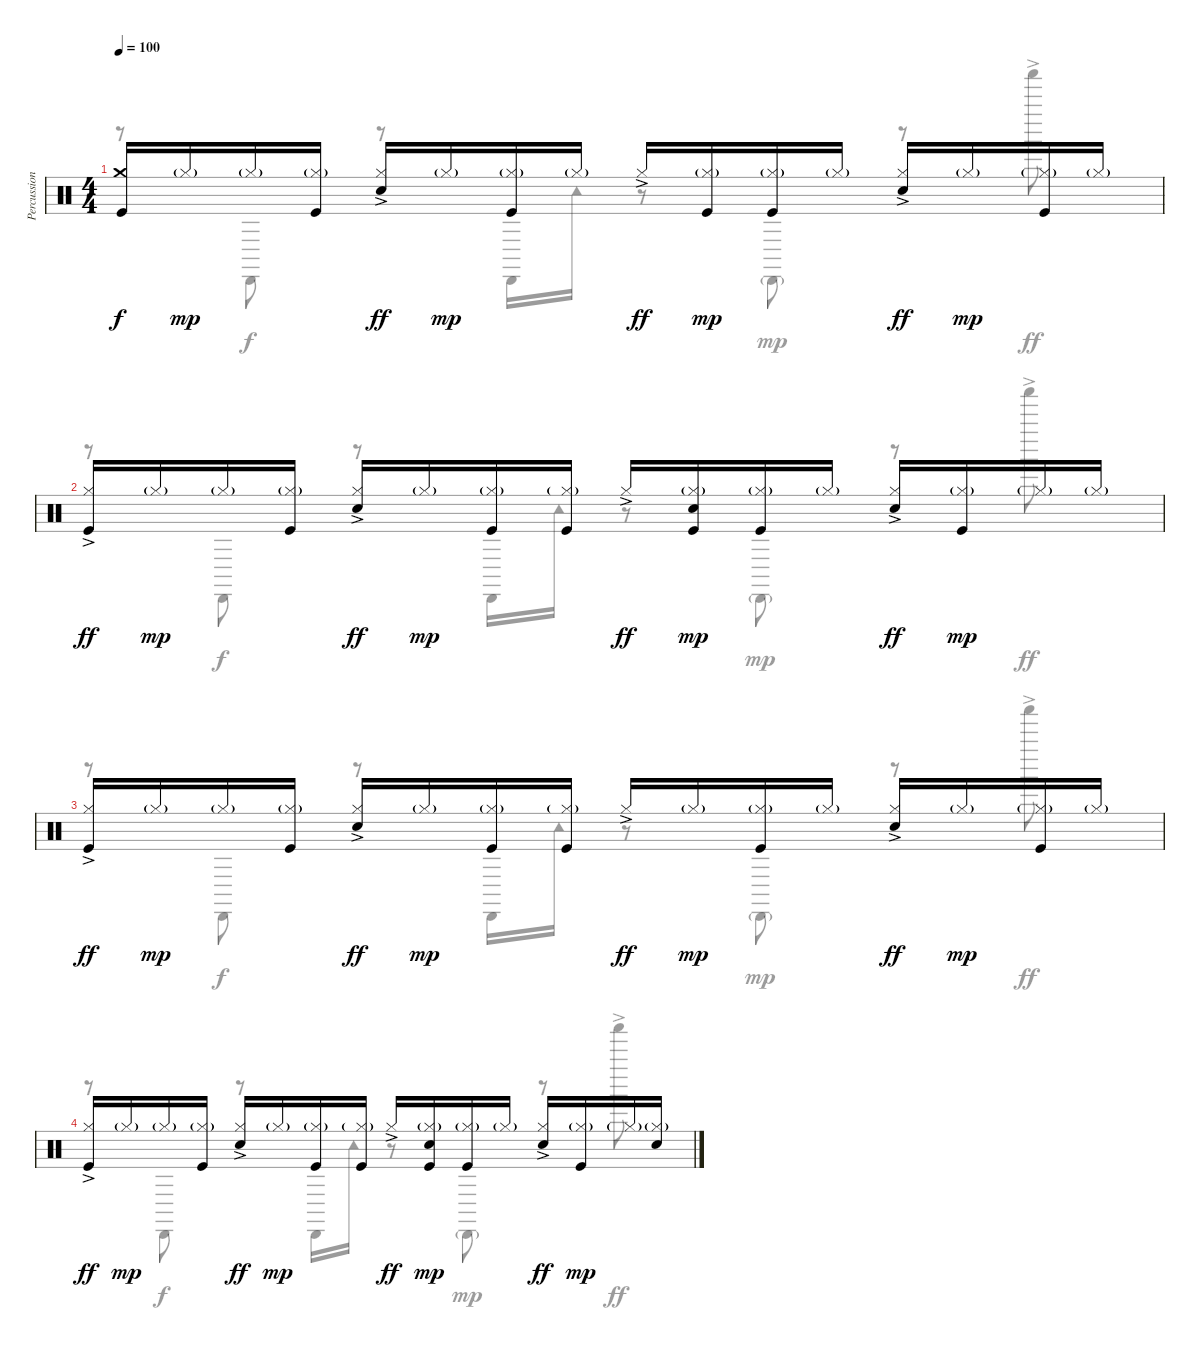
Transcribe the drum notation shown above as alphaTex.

\track ("Percussions" "Percussion") {instrument percussion}
\staff {score}
\articulation defaults
\voice
\ts (4 4)
\tempo 100
\clef neutral
\ks c
("Kick (hit)" "Crash medium (hit)").16{dy f} "Hi-Hat (closed)"{g}.16{dy mp} "Hi-Hat (closed)"{g}.16 ("Kick (hit)" "Hi-Hat (closed)"{g}).16 ("Electric Snare (hit)" "Hi-Hat (closed)"{ac}).16{dy ff} "Hi-Hat (closed)"{g}.16{dy mp} ("Kick (hit)" "Hi-Hat (closed)"{g}).16 "Hi-Hat (closed)"{g}.16 "Hi-Hat (closed)"{ac}.16{dy ff} ("Kick (hit)" "Hi-Hat (closed)"{g}).16{dy mp} ("Kick (hit)" "Hi-Hat (closed)"{g}).16 "Hi-Hat (closed)"{g}.16 ("Snare (hit) 2" "Hi-Hat (closed)"{ac}).16{dy ff} "Hi-Hat (closed)"{g}.16{dy mp} ("Kick (hit)" "Hi-Hat (closed)"{g}).16 "Hi-Hat (closed)"{g}.16 |
("Kick (hit)" "Hi-Hat (closed)"{ac}).16{dy ff} "Hi-Hat (closed)"{g}.16{dy mp} "Hi-Hat (closed)"{g}.16 ("Kick (hit)" "Hi-Hat (closed)"{g}).16 ("Electric Snare (hit)" "Hi-Hat (closed)"{ac}).16{dy ff} "Hi-Hat (closed)"{g}.16{dy mp} ("Kick (hit)" "Hi-Hat (closed)"{g}).16 ("Kick (hit)" "Hi-Hat (closed)"{g}).16 "Hi-Hat (closed)"{ac}.16{dy ff} ("Kick (hit)" "Electric Snare (hit)" "Hi-Hat (closed)"{g}).16{dy mp} ("Kick (hit)" "Hi-Hat (closed)"{g}).16 "Hi-Hat (closed)"{g}.16 ("Snare (hit) 2" "Hi-Hat (closed)"{ac}).16{dy ff} ("Kick (hit)" "Hi-Hat (closed)"{g}).16{dy mp} "Hi-Hat (closed)"{g}.16 "Hi-Hat (closed)"{g}.16 |
("Kick (hit)" "Hi-Hat (closed)"{ac}).16{dy ff} "Hi-Hat (closed)"{g}.16{dy mp} "Hi-Hat (closed)"{g}.16 ("Kick (hit)" "Hi-Hat (closed)"{g}).16 ("Electric Snare (hit)" "Hi-Hat (closed)"{ac}).16{dy ff} "Hi-Hat (closed)"{g}.16{dy mp} ("Kick (hit)" "Hi-Hat (closed)"{g}).16 ("Kick (hit)" "Hi-Hat (closed)"{g}).16 "Hi-Hat (closed)"{ac}.16{dy ff} "Hi-Hat (closed)"{g}.16{dy mp} ("Kick (hit)" "Hi-Hat (closed)"{g}).16 "Hi-Hat (closed)"{g}.16 ("Snare (hit) 2" "Hi-Hat (closed)"{ac}).16{dy ff} "Hi-Hat (closed)"{g}.16{dy mp} ("Kick (hit)" "Hi-Hat (closed)"{g}).16 "Hi-Hat (closed)"{g}.16 |
("Kick (hit)" "Hi-Hat (closed)"{ac}).16{dy ff} "Hi-Hat (closed)"{g}.16{dy mp} "Hi-Hat (closed)"{g}.16 ("Kick (hit)" "Hi-Hat (closed)"{g}).16 ("Electric Snare (hit)" "Hi-Hat (closed)"{ac}).16{dy ff} "Hi-Hat (closed)"{g}.16{dy mp} ("Kick (hit)" "Hi-Hat (closed)"{g}).16 ("Kick (hit)" "Hi-Hat (closed)"{g}).16 "Hi-Hat (closed)"{ac}.16{dy ff} ("Kick (hit)" "Electric Snare (hit)" "Hi-Hat (closed)"{g}).16{dy mp} ("Kick (hit)" "Hi-Hat (closed)"{g}).16 "Hi-Hat (closed)"{g}.16 ("Snare (hit) 2" "Hi-Hat (closed)"{ac}).16{dy ff} ("Kick (hit)" "Hi-Hat (closed)"{g}).16{dy mp} "Hi-Hat (closed)"{g}.16 ("Snare (hit) 2" "Hi-Hat (closed)"{g}).16
\voice
\clef neutral
\ottava regular
\simile none
\ks c
r.8{dy ff} "Cabasa (hit)".8{dy f} r.8 "Cabasa (hit)".16 "Tambourine (hit)".16 r.8 "Cabasa (hit)"{g}.8{dy mp} r.8 "Shaker (hit)"{ac}.8{dy ff} |
r.8 "Cabasa (hit)".8{dy f} r.8 "Cabasa (hit)".16 "Tambourine (hit)".16 r.8 "Cabasa (hit)"{g}.8{dy mp} r.8 "Shaker (hit)"{ac}.8{dy ff} |
r.8 "Cabasa (hit)".8{dy f} r.8 "Cabasa (hit)".16 "Tambourine (hit)".16 r.8 "Cabasa (hit)"{g}.8{dy mp} r.8 "Shaker (hit)"{ac}.8{dy ff} |
r.8 "Cabasa (hit)".8{dy f} r.8 "Cabasa (hit)".16 "Tambourine (hit)".16 r.8 "Cabasa (hit)"{g}.8{dy mp} r.8 "Shaker (hit)"{ac}.8{dy ff}
